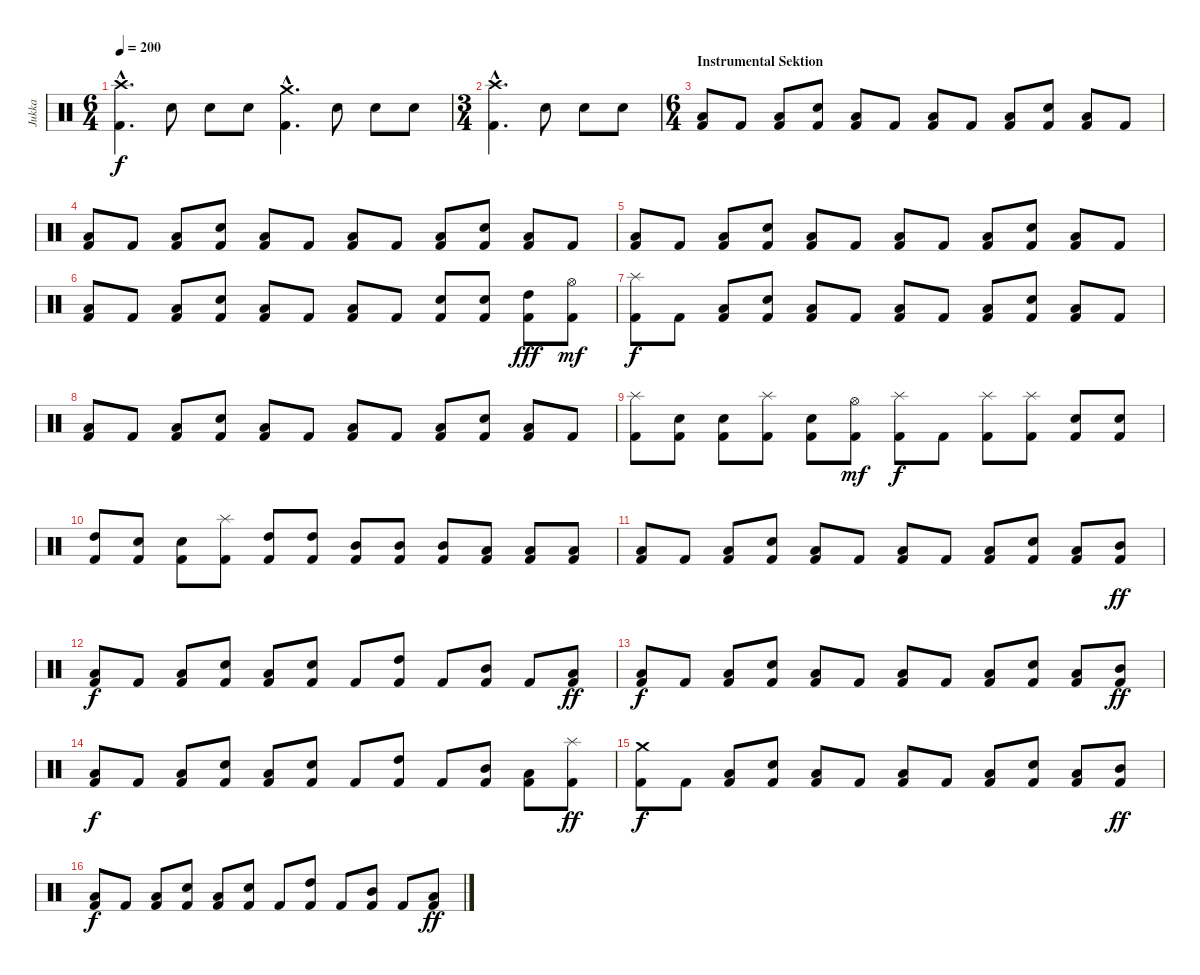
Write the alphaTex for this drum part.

\track ("Jukka" "Jukka") {instrument percussion}
\staff {score}
\articulation defaults
\ts (6 4)
\tempo 200
\clef neutral
\ks c
("Crash high (hit)"{hac} "Kick (hit) 2"{hac}).4{d dy f} "Snare (hit) 2".8 "Snare (hit) 2".8 "Snare (hit) 2".8 ("Crash medium (hit)"{hac} "Kick (hit) 2"{hac}).4{d} "Snare (hit) 2".8 "Snare (hit) 2".8 "Snare (hit) 2".8 |
\ts (3 4)
("Crash high (hit)"{hac} "Kick (hit) 2"{hac}).4{d} "Snare (hit) 2".8 "Snare (hit) 2".8 "Snare (hit) 2".8 |
\ts (6 4)
\section ("" "Instrumental Sektion")
("Low Floor Tom (hit)" "Kick (hit) 2").8 "Kick (hit) 2".8 ("Low Floor Tom (hit)" "Kick (hit) 2").8 ("Snare (hit) 2" "Kick (hit) 2").8 ("Low Floor Tom (hit)" "Kick (hit) 2").8 "Kick (hit) 2".8 ("Low Floor Tom (hit)" "Kick (hit) 2").8 "Kick (hit) 2".8 ("Low Floor Tom (hit)" "Kick (hit) 2").8 ("Snare (hit) 2" "Kick (hit) 2").8 ("Low Floor Tom (hit)" "Kick (hit) 2").8 "Kick (hit) 2".8 |
("Low Floor Tom (hit)" "Kick (hit) 2").8 "Kick (hit) 2".8 ("Low Floor Tom (hit)" "Kick (hit) 2").8 ("Snare (hit) 2" "Kick (hit) 2").8 ("Low Floor Tom (hit)" "Kick (hit) 2").8 "Kick (hit) 2".8 ("Low Floor Tom (hit)" "Kick (hit) 2").8 "Kick (hit) 2".8 ("Low Floor Tom (hit)" "Kick (hit) 2").8 ("Snare (hit) 2" "Kick (hit) 2").8 ("Low Floor Tom (hit)" "Kick (hit) 2").8 "Kick (hit) 2".8 |
("Low Floor Tom (hit)" "Kick (hit) 2").8 "Kick (hit) 2".8 ("Low Floor Tom (hit)" "Kick (hit) 2").8 ("Snare (hit) 2" "Kick (hit) 2").8 ("Low Floor Tom (hit)" "Kick (hit) 2").8 "Kick (hit) 2".8 ("Low Floor Tom (hit)" "Kick (hit) 2").8 "Kick (hit) 2".8 ("Low Floor Tom (hit)" "Kick (hit) 2").8 ("Snare (hit) 2" "Kick (hit) 2").8 ("Low Floor Tom (hit)" "Kick (hit) 2").8 "Kick (hit) 2".8 |
("Low Floor Tom (hit)" "Kick (hit) 2").8 "Kick (hit) 2".8 ("Low Floor Tom (hit)" "Kick (hit) 2").8 ("Snare (hit) 2" "Kick (hit) 2").8 ("Low Floor Tom (hit)" "Kick (hit) 2").8 "Kick (hit) 2".8 ("Low Floor Tom (hit)" "Kick (hit) 2").8 "Kick (hit) 2".8 ("Snare (hit) 2" "Kick (hit) 2").8 ("Snare (hit) 2" "Kick (hit) 2").8 ("High Tom (hit)" "Kick (hit) 2").8{dy fff} ("Hi-Hat (open)" "Kick (hit) 2").8{dy mf} |
("Splash (hit)" "Kick (hit) 2").8{dy f} "Kick (hit) 2".8 ("Low Floor Tom (hit)" "Kick (hit) 2").8 ("Snare (hit) 2" "Kick (hit) 2").8 ("Low Floor Tom (hit)" "Kick (hit) 2").8 "Kick (hit) 2".8 ("Low Floor Tom (hit)" "Kick (hit) 2").8 "Kick (hit) 2".8 ("Low Floor Tom (hit)" "Kick (hit) 2").8 ("Snare (hit) 2" "Kick (hit) 2").8 ("Low Floor Tom (hit)" "Kick (hit) 2").8 "Kick (hit) 2".8 |
("Low Floor Tom (hit)" "Kick (hit) 2").8 "Kick (hit) 2".8 ("Low Floor Tom (hit)" "Kick (hit) 2").8 ("Snare (hit) 2" "Kick (hit) 2").8 ("Low Floor Tom (hit)" "Kick (hit) 2").8 "Kick (hit) 2".8 ("Low Floor Tom (hit)" "Kick (hit) 2").8 "Kick (hit) 2".8 ("Low Floor Tom (hit)" "Kick (hit) 2").8 ("Snare (hit) 2" "Kick (hit) 2").8 ("Low Floor Tom (hit)" "Kick (hit) 2").8 "Kick (hit) 2".8 |
("Splash (hit)" "Kick (hit) 2").8 ("Snare (hit) 2" "Kick (hit) 2").8 ("Snare (hit) 2" "Kick (hit) 2").8 ("Splash (hit)" "Kick (hit) 2").8 ("Snare (hit) 2" "Kick (hit) 2").8 ("Hi-Hat (open)" "Kick (hit) 2").8{dy mf} ("Splash (hit)" "Kick (hit) 2").8{dy f} "Kick (hit) 2".8 ("Splash (hit)" "Kick (hit) 2").8 ("Splash (hit)" "Kick (hit) 2").8 ("Snare (hit) 2" "Kick (hit) 2").8 ("Snare (hit) 2" "Kick (hit) 2").8 |
("High Tom (hit)" "Kick (hit) 2").8 ("Snare (hit) 2" "Kick (hit) 2").8 ("Snare (hit) 2" "Kick (hit) 2").8 ("Splash (hit)" "Kick (hit) 2").8 ("High Tom (hit)" "Kick (hit) 2").8 ("High Tom (hit)" "Kick (hit) 2").8 ("Mid Tom (hit)" "Kick (hit) 2").8 ("Mid Tom (hit)" "Kick (hit) 2").8 ("Mid Tom (hit)" "Kick (hit) 2").8 ("Low Tom (hit)" "Kick (hit) 2").8 ("Low Tom (hit)" "Kick (hit) 2").8 ("Low Tom (hit)" "Kick (hit) 2").8 |
("Low Floor Tom (hit)" "Kick (hit) 2").8 "Kick (hit) 2".8 ("Low Floor Tom (hit)" "Kick (hit) 2").8 ("Snare (hit) 2" "Kick (hit) 2").8 ("Low Floor Tom (hit)" "Kick (hit) 2").8 "Kick (hit) 2".8 ("Low Floor Tom (hit)" "Kick (hit) 2").8 "Kick (hit) 2".8 ("Low Floor Tom (hit)" "Kick (hit) 2").8 ("Snare (hit) 2" "Kick (hit) 2").8 ("Low Floor Tom (hit)" "Kick (hit) 2").8 ("Mid Tom (hit)" "Kick (hit) 2").8{dy ff} |
("Low Floor Tom (hit)" "Kick (hit) 2").8{dy f} "Kick (hit) 2".8 ("Low Floor Tom (hit)" "Kick (hit) 2").8 ("Snare (hit) 2" "Kick (hit) 2").8 ("Low Floor Tom (hit)" "Kick (hit) 2").8 ("Snare (hit) 2" "Kick (hit) 2").8 "Kick (hit) 2".8 ("High Tom (hit)" "Kick (hit) 2").8 "Kick (hit) 2".8 ("Mid Tom (hit)" "Kick (hit) 2").8 "Kick (hit) 2".8 ("Low Tom (hit)" "Kick (hit) 2").8{dy ff} |
("Low Floor Tom (hit)" "Kick (hit) 2").8{dy f} "Kick (hit) 2".8 ("Low Floor Tom (hit)" "Kick (hit) 2").8 ("Snare (hit) 2" "Kick (hit) 2").8 ("Low Floor Tom (hit)" "Kick (hit) 2").8 "Kick (hit) 2".8 ("Low Floor Tom (hit)" "Kick (hit) 2").8 "Kick (hit) 2".8 ("Low Floor Tom (hit)" "Kick (hit) 2").8 ("Snare (hit) 2" "Kick (hit) 2").8 ("Low Floor Tom (hit)" "Kick (hit) 2").8 ("Mid Tom (hit)" "Kick (hit) 2").8{dy ff} |
("Low Floor Tom (hit)" "Kick (hit) 2").8{dy f} "Kick (hit) 2".8 ("Low Floor Tom (hit)" "Kick (hit) 2").8 ("Snare (hit) 2" "Kick (hit) 2").8 ("Low Floor Tom (hit)" "Kick (hit) 2").8 ("Snare (hit) 2" "Kick (hit) 2").8 "Kick (hit) 2".8 ("High Tom (hit)" "Kick (hit) 2").8 "Kick (hit) 2".8 ("Mid Tom (hit)" "Kick (hit) 2").8 ("Low Tom (hit)" "Kick (hit) 2").8 ("Splash (hit)" "Kick (hit) 2").8{dy ff} |
("Crash medium (hit)" "Kick (hit) 2").8{dy f} "Kick (hit) 2".8 ("Low Floor Tom (hit)" "Kick (hit) 2").8 ("Snare (hit) 2" "Kick (hit) 2").8 ("Low Floor Tom (hit)" "Kick (hit) 2").8 "Kick (hit) 2".8 ("Low Floor Tom (hit)" "Kick (hit) 2").8 "Kick (hit) 2".8 ("Low Floor Tom (hit)" "Kick (hit) 2").8 ("Snare (hit) 2" "Kick (hit) 2").8 ("Low Floor Tom (hit)" "Kick (hit) 2").8 ("Mid Tom (hit)" "Kick (hit) 2").8{dy ff} |
("Low Floor Tom (hit)" "Kick (hit) 2").8{dy f} "Kick (hit) 2".8 ("Low Floor Tom (hit)" "Kick (hit) 2").8 ("Snare (hit) 2" "Kick (hit) 2").8 ("Low Floor Tom (hit)" "Kick (hit) 2").8 ("Snare (hit) 2" "Kick (hit) 2").8 "Kick (hit) 2".8 ("High Tom (hit)" "Kick (hit) 2").8 "Kick (hit) 2".8 ("Mid Tom (hit)" "Kick (hit) 2").8 "Kick (hit) 2".8 ("Low Tom (hit)" "Kick (hit) 2").8{dy ff}
